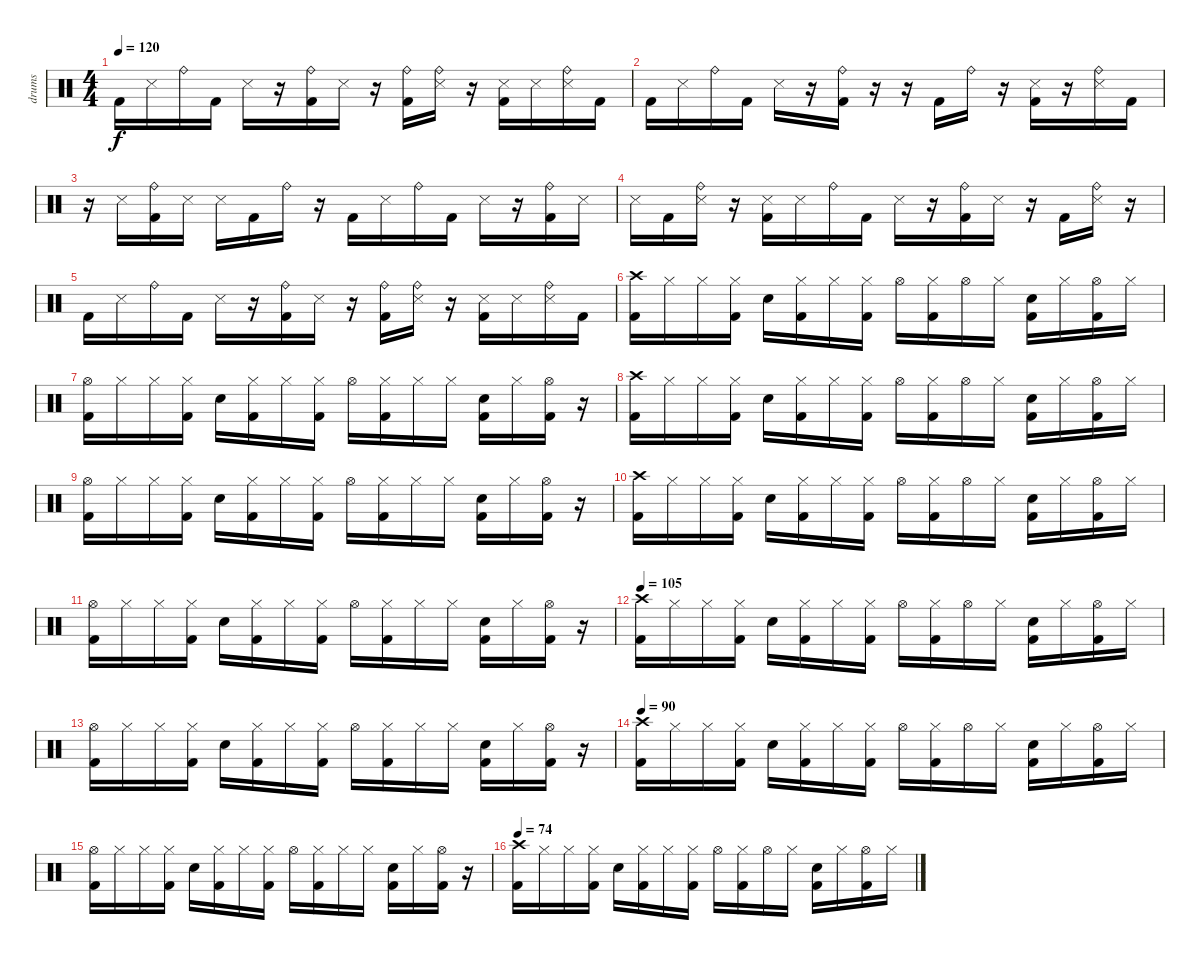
\track ("drums" "drums") {instrument percussion}
\staff {score}
\articulation defaults
\ts (4 4)
\tempo 120
\clef neutral
\ks c "Kick (hit) 2".16{dy f} "Snare (side stick) 3".16 "Ride (bell)".16 "Kick (hit) 2".16 "Snare (side stick) 3".16
r.16 ("Ride (bell)" "Kick (hit) 2").16 "Snare (side stick) 3".16 r.16 ("Ride (bell)" "Kick (hit) 2").16 ("Ride (bell)" "Snare (side stick) 3").16 r.16 ("Snare (side stick) 3" "Kick (hit) 2").16 "Snare (side stick) 3".16 ("Ride (bell)" "Snare (side stick) 3").16 "Kick (hit) 2".16 |
"Kick (hit) 2".16 "Snare (side stick) 3".16 "Ride (bell)".16 "Kick (hit) 2".16 "Snare (side stick) 3".16 r.16 ("Ride (bell)" "Kick (hit) 2").16 r.16 r.16 "Kick (hit) 2".16 "Ride (bell)".16 r.16 ("Snare (side stick) 3" "Kick (hit) 2").16 r.16 ("Ride (bell)" "Snare (side stick) 3").16 "Kick (hit) 2".16 |
r.16 "Snare (side stick) 3".16 ("Ride (bell)" "Kick (hit) 2").16 "Snare (side stick) 3".16 "Snare (side stick) 3".16 "Kick (hit) 2".16 "Ride (bell)".16 r.16 "Kick (hit) 2".16 "Snare (side stick) 3".16 "Ride (bell)".16 "Kick (hit) 2".16 "Snare (side stick) 3".16 r.16 ("Ride (bell)" "Kick (hit) 2").16 "Snare (side stick) 3".16 |
"Snare (side stick) 3".16 "Kick (hit) 2".16 ("Ride (bell)" "Snare (side stick) 3").16 r.16 ("Snare (side stick) 3" "Kick (hit) 2").16 "Snare (side stick) 3".16 "Ride (bell)".16 "Kick (hit) 2".16 "Snare (side stick) 3".16 r.16 ("Ride (bell)" "Kick (hit) 2").16 "Snare (side stick) 3".16 r.16 "Kick (hit) 2".16 ("Ride (bell)" "Snare (side stick) 3").16 r.16 |
"Kick (hit) 2".16 "Snare (side stick) 3".16 "Ride (bell)".16 "Kick (hit) 2".16 "Snare (side stick) 3".16 r.16 ("Ride (bell)" "Kick (hit) 2").16 "Snare (side stick) 3".16 r.16 ("Ride (bell)" "Kick (hit) 2").16 ("Ride (bell)" "Snare (side stick) 3").16 r.16 ("Snare (side stick) 3" "Kick (hit) 2").16 "Snare (side stick) 3".16 ("Ride (bell)" "Snare (side stick) 3").16 "Kick (hit) 2".16 |
("Crash high (hit)" "Kick (hit) 2").16 "Hi-Hat (closed)".16 "Hi-Hat (closed)".16 ("Hi-Hat (closed)" "Kick (hit) 2").16 "Snare (hit) 2".16 ("Hi-Hat (closed)" "Kick (hit) 2").16 "Hi-Hat (closed)".16 ("Hi-Hat (closed)" "Kick (hit) 2").16 "Hi-Hat (open)".16 ("Hi-Hat (closed)" "Kick (hit) 2").16 "Hi-Hat (open)".16 "Hi-Hat (closed)".16 ("Snare (hit) 2" "Kick (hit) 2").16 "Hi-Hat (closed)".16 ("Hi-Hat (open)" "Kick (hit) 2").16 "Hi-Hat (closed)".16 |
("Hi-Hat (open)" "Kick (hit) 2").16 "Hi-Hat (closed)".16 "Hi-Hat (closed)".16 ("Hi-Hat (closed)" "Kick (hit) 2").16 "Snare (hit) 2".16 ("Hi-Hat (closed)" "Kick (hit) 2").16 "Hi-Hat (closed)".16 ("Hi-Hat (closed)" "Kick (hit) 2").16 "Hi-Hat (open)".16 ("Hi-Hat (closed)" "Kick (hit) 2").16 "Hi-Hat (closed)".16 "Hi-Hat (closed)".16 ("Snare (hit) 2" "Kick (hit) 2").16 "Hi-Hat (closed)".16 ("Hi-Hat (open)" "Kick (hit) 2").16 r.16 |
("Crash high (hit)" "Kick (hit) 2").16 "Hi-Hat (closed)".16 "Hi-Hat (closed)".16 ("Hi-Hat (closed)" "Kick (hit) 2").16 "Snare (hit) 2".16 ("Hi-Hat (closed)" "Kick (hit) 2").16 "Hi-Hat (closed)".16 ("Hi-Hat (closed)" "Kick (hit) 2").16 "Hi-Hat (open)".16 ("Hi-Hat (closed)" "Kick (hit) 2").16 "Hi-Hat (open)".16 "Hi-Hat (closed)".16 ("Snare (hit) 2" "Kick (hit) 2").16 "Hi-Hat (closed)".16 ("Hi-Hat (open)" "Kick (hit) 2").16 "Hi-Hat (closed)".16 |
("Hi-Hat (open)" "Kick (hit) 2").16 "Hi-Hat (closed)".16 "Hi-Hat (closed)".16 ("Hi-Hat (closed)" "Kick (hit) 2").16 "Snare (hit) 2".16 ("Hi-Hat (closed)" "Kick (hit) 2").16 "Hi-Hat (closed)".16 ("Hi-Hat (closed)" "Kick (hit) 2").16 "Hi-Hat (open)".16 ("Hi-Hat (closed)" "Kick (hit) 2").16 "Hi-Hat (closed)".16 "Hi-Hat (closed)".16 ("Snare (hit) 2" "Kick (hit) 2").16 "Hi-Hat (closed)".16 ("Hi-Hat (open)" "Kick (hit) 2").16 r.16 |
("Crash high (hit)" "Kick (hit) 2").16 "Hi-Hat (closed)".16 "Hi-Hat (closed)".16 ("Hi-Hat (closed)" "Kick (hit) 2").16 "Snare (hit) 2".16 ("Hi-Hat (closed)" "Kick (hit) 2").16 "Hi-Hat (closed)".16 ("Hi-Hat (closed)" "Kick (hit) 2").16 "Hi-Hat (open)".16 ("Hi-Hat (closed)" "Kick (hit) 2").16 "Hi-Hat (open)".16 "Hi-Hat (closed)".16 ("Snare (hit) 2" "Kick (hit) 2").16 "Hi-Hat (closed)".16 ("Hi-Hat (open)" "Kick (hit) 2").16 "Hi-Hat (closed)".16 |
("Hi-Hat (open)" "Kick (hit) 2").16 "Hi-Hat (closed)".16 "Hi-Hat (closed)".16 ("Hi-Hat (closed)" "Kick (hit) 2").16 "Snare (hit) 2".16 ("Hi-Hat (closed)" "Kick (hit) 2").16 "Hi-Hat (closed)".16 ("Hi-Hat (closed)" "Kick (hit) 2").16 "Hi-Hat (open)".16 ("Hi-Hat (closed)" "Kick (hit) 2").16 "Hi-Hat (closed)".16 "Hi-Hat (closed)".16 ("Snare (hit) 2" "Kick (hit) 2").16 "Hi-Hat (closed)".16 ("Hi-Hat (open)" "Kick (hit) 2").16 r.16 |
\tempo 105
("Crash high (hit)" "Kick (hit) 2").16 "Hi-Hat (closed)".16 "Hi-Hat (closed)".16 ("Hi-Hat (closed)" "Kick (hit) 2").16 "Snare (hit) 2".16 ("Hi-Hat (closed)" "Kick (hit) 2").16 "Hi-Hat (closed)".16 ("Hi-Hat (closed)" "Kick (hit) 2").16 "Hi-Hat (open)".16 ("Hi-Hat (closed)" "Kick (hit) 2").16 "Hi-Hat (open)".16 "Hi-Hat (closed)".16 ("Snare (hit) 2" "Kick (hit) 2").16 "Hi-Hat (closed)".16 ("Hi-Hat (open)" "Kick (hit) 2").16 "Hi-Hat (closed)".16 |
("Hi-Hat (open)" "Kick (hit) 2").16 "Hi-Hat (closed)".16 "Hi-Hat (closed)".16 ("Hi-Hat (closed)" "Kick (hit) 2").16 "Snare (hit) 2".16 ("Hi-Hat (closed)" "Kick (hit) 2").16 "Hi-Hat (closed)".16 ("Hi-Hat (closed)" "Kick (hit) 2").16 "Hi-Hat (open)".16 ("Hi-Hat (closed)" "Kick (hit) 2").16 "Hi-Hat (closed)".16 "Hi-Hat (closed)".16 ("Snare (hit) 2" "Kick (hit) 2").16 "Hi-Hat (closed)".16 ("Hi-Hat (open)" "Kick (hit) 2").16 r.16 |
\tempo 90
("Crash high (hit)" "Kick (hit) 2").16 "Hi-Hat (closed)".16 "Hi-Hat (closed)".16 ("Hi-Hat (closed)" "Kick (hit) 2").16 "Snare (hit) 2".16 ("Hi-Hat (closed)" "Kick (hit) 2").16 "Hi-Hat (closed)".16 ("Hi-Hat (closed)" "Kick (hit) 2").16 "Hi-Hat (open)".16 ("Hi-Hat (closed)" "Kick (hit) 2").16 "Hi-Hat (open)".16 "Hi-Hat (closed)".16 ("Snare (hit) 2" "Kick (hit) 2").16 "Hi-Hat (closed)".16 ("Hi-Hat (open)" "Kick (hit) 2").16 "Hi-Hat (closed)".16 |
("Hi-Hat (open)" "Kick (hit) 2").16 "Hi-Hat (closed)".16 "Hi-Hat (closed)".16 ("Hi-Hat (closed)" "Kick (hit) 2").16 "Snare (hit) 2".16 ("Hi-Hat (closed)" "Kick (hit) 2").16 "Hi-Hat (closed)".16 ("Hi-Hat (closed)" "Kick (hit) 2").16 "Hi-Hat (open)".16 ("Hi-Hat (closed)" "Kick (hit) 2").16 "Hi-Hat (closed)".16 "Hi-Hat (closed)".16 ("Snare (hit) 2" "Kick (hit) 2").16 "Hi-Hat (closed)".16 ("Hi-Hat (open)" "Kick (hit) 2").16 r.16 |
\tempo 74
("Crash high (hit)" "Kick (hit) 2").16 "Hi-Hat (closed)".16 "Hi-Hat (closed)".16 ("Hi-Hat (closed)" "Kick (hit) 2").16 "Snare (hit) 2".16 ("Hi-Hat (closed)" "Kick (hit) 2").16 "Hi-Hat (closed)".16 ("Hi-Hat (closed)" "Kick (hit) 2").16 "Hi-Hat (open)".16 ("Hi-Hat (closed)" "Kick (hit) 2").16 "Hi-Hat (open)".16 "Hi-Hat (closed)".16 ("Snare (hit) 2" "Kick (hit) 2").16 "Hi-Hat (closed)".16 ("Hi-Hat (open)" "Kick (hit) 2").16 "Hi-Hat (closed)".16
